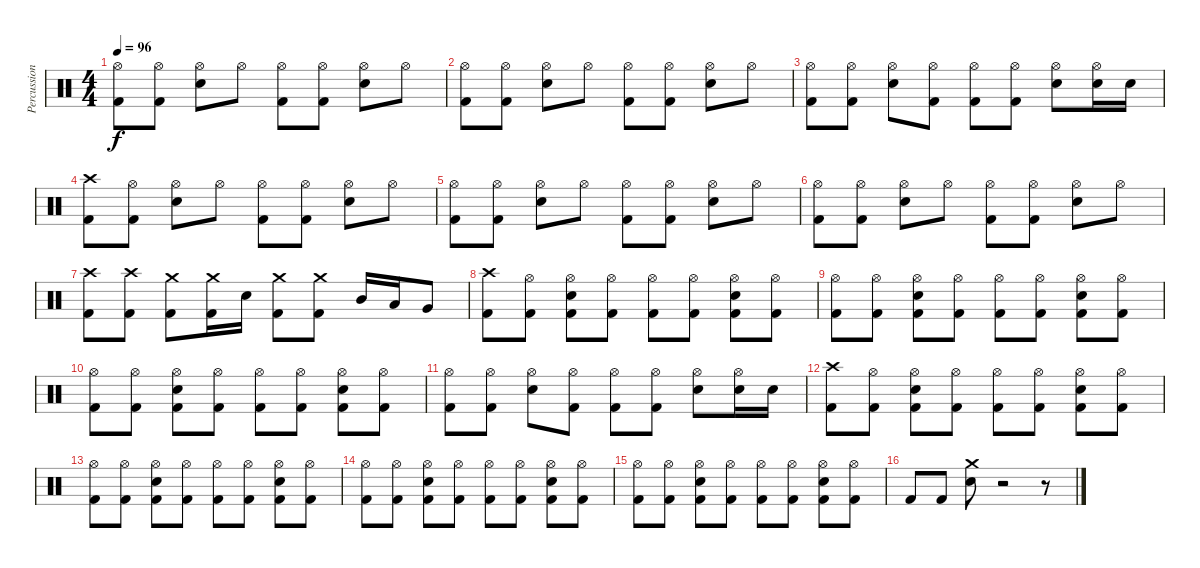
\track ("Percussion" "Percussion") {instrument percussion}
\staff {score}
\articulation defaults
\ts (4 4)
\tempo 96
\clef neutral
\ks c
("Hi-Hat (open)" "Kick (hit) 2").8{dy f} ("Hi-Hat (open)" "Kick (hit) 2").8 ("Hi-Hat (open)" "Electric Snare (hit)").8 "Hi-Hat (open)".8 ("Hi-Hat (open)" "Kick (hit) 2").8 ("Hi-Hat (open)" "Kick (hit) 2").8 ("Hi-Hat (open)" "Electric Snare (hit)").8 "Hi-Hat (open)".8 |
("Hi-Hat (open)" "Kick (hit) 2").8 ("Hi-Hat (open)" "Kick (hit) 2").8 ("Hi-Hat (open)" "Electric Snare (hit)").8 "Hi-Hat (open)".8 ("Hi-Hat (open)" "Kick (hit) 2").8 ("Hi-Hat (open)" "Kick (hit) 2").8 ("Hi-Hat (open)" "Electric Snare (hit)").8 "Hi-Hat (open)".8 |
("Hi-Hat (open)" "Kick (hit) 2").8 ("Hi-Hat (open)" "Kick (hit) 2").8 ("Hi-Hat (open)" "Electric Snare (hit)").8 ("Hi-Hat (open)" "Kick (hit) 2").8 ("Hi-Hat (open)" "Kick (hit) 2").8 ("Hi-Hat (open)" "Kick (hit) 2").8 ("Hi-Hat (open)" "Electric Snare (hit)").8 ("Hi-Hat (open)" "Electric Snare (hit)").16 "Electric Snare (hit)".16 |
("Crash high (hit)" "Kick (hit) 2").8 ("Hi-Hat (open)" "Kick (hit) 2").8 ("Hi-Hat (open)" "Electric Snare (hit)").8 "Hi-Hat (open)".8 ("Hi-Hat (open)" "Kick (hit) 2").8 ("Hi-Hat (open)" "Kick (hit) 2").8 ("Hi-Hat (open)" "Electric Snare (hit)").8 "Hi-Hat (open)".8 |
("Hi-Hat (open)" "Kick (hit) 2").8 ("Hi-Hat (open)" "Kick (hit) 2").8 ("Hi-Hat (open)" "Electric Snare (hit)").8 "Hi-Hat (open)".8 ("Hi-Hat (open)" "Kick (hit) 2").8 ("Hi-Hat (open)" "Kick (hit) 2").8 ("Hi-Hat (open)" "Electric Snare (hit)").8 "Hi-Hat (open)".8 |
("Hi-Hat (open)" "Kick (hit) 2").8 ("Hi-Hat (open)" "Kick (hit) 2").8 ("Hi-Hat (open)" "Electric Snare (hit)").8 "Hi-Hat (open)".8 ("Hi-Hat (open)" "Kick (hit) 2").8 ("Hi-Hat (open)" "Kick (hit) 2").8 ("Hi-Hat (open)" "Electric Snare (hit)").8 "Hi-Hat (open)".8 |
("Crash high (hit)" "Kick (hit) 2").8 ("Crash high (hit)" "Kick (hit) 2").8 ("Crash medium (hit)" "Kick (hit) 2").8 ("Crash medium (hit)" "Kick (hit) 2").16 "Electric Snare (hit)".16 ("Crash medium (hit)" "Kick (hit) 2").8 ("Crash medium (hit)" "Kick (hit) 2").8 "Mid Tom (hit)".16 "Low Tom (hit)".16 "Very Low Tom (hit)".8 |
("Crash high (hit)" "Kick (hit) 2").8 ("Hi-Hat (open)" "Kick (hit) 2").8 ("Hi-Hat (open)" "Electric Snare (hit)" "Kick (hit) 2").8 ("Hi-Hat (open)" "Kick (hit) 2").8 ("Hi-Hat (open)" "Kick (hit) 2").8 ("Hi-Hat (open)" "Kick (hit) 2").8 ("Hi-Hat (open)" "Electric Snare (hit)" "Kick (hit) 2").8 ("Hi-Hat (open)" "Kick (hit) 2").8 |
("Hi-Hat (open)" "Kick (hit) 2").8 ("Hi-Hat (open)" "Kick (hit) 2").8 ("Hi-Hat (open)" "Electric Snare (hit)" "Kick (hit) 2").8 ("Hi-Hat (open)" "Kick (hit) 2").8 ("Hi-Hat (open)" "Kick (hit) 2").8 ("Hi-Hat (open)" "Kick (hit) 2").8 ("Hi-Hat (open)" "Electric Snare (hit)" "Kick (hit) 2").8 ("Hi-Hat (open)" "Kick (hit) 2").8 |
("Hi-Hat (open)" "Kick (hit) 2").8 ("Hi-Hat (open)" "Kick (hit) 2").8 ("Hi-Hat (open)" "Electric Snare (hit)" "Kick (hit) 2").8 ("Hi-Hat (open)" "Kick (hit) 2").8 ("Hi-Hat (open)" "Kick (hit) 2").8 ("Hi-Hat (open)" "Kick (hit) 2").8 ("Hi-Hat (open)" "Electric Snare (hit)" "Kick (hit) 2").8 ("Hi-Hat (open)" "Kick (hit) 2").8 |
("Hi-Hat (open)" "Kick (hit) 2").8 ("Hi-Hat (open)" "Kick (hit) 2").8 ("Hi-Hat (open)" "Electric Snare (hit)").8 ("Hi-Hat (open)" "Kick (hit) 2").8 ("Hi-Hat (open)" "Kick (hit) 2").8 ("Hi-Hat (open)" "Kick (hit) 2").8 ("Hi-Hat (open)" "Electric Snare (hit)").8 ("Hi-Hat (open)" "Electric Snare (hit)").16 "Electric Snare (hit)".16 |
("Crash high (hit)" "Kick (hit) 2").8 ("Hi-Hat (open)" "Kick (hit) 2").8 ("Hi-Hat (open)" "Electric Snare (hit)" "Kick (hit) 2").8 ("Hi-Hat (open)" "Kick (hit) 2").8 ("Hi-Hat (open)" "Kick (hit) 2").8 ("Hi-Hat (open)" "Kick (hit) 2").8 ("Hi-Hat (open)" "Electric Snare (hit)" "Kick (hit) 2").8 ("Hi-Hat (open)" "Kick (hit) 2").8 |
("Hi-Hat (open)" "Kick (hit) 2").8 ("Hi-Hat (open)" "Kick (hit) 2").8 ("Hi-Hat (open)" "Electric Snare (hit)" "Kick (hit) 2").8 ("Hi-Hat (open)" "Kick (hit) 2").8 ("Hi-Hat (open)" "Kick (hit) 2").8 ("Hi-Hat (open)" "Kick (hit) 2").8 ("Hi-Hat (open)" "Electric Snare (hit)" "Kick (hit) 2").8 ("Hi-Hat (open)" "Kick (hit) 2").8 |
("Hi-Hat (open)" "Kick (hit) 2").8 ("Hi-Hat (open)" "Kick (hit) 2").8 ("Hi-Hat (open)" "Electric Snare (hit)" "Kick (hit) 2").8 ("Hi-Hat (open)" "Kick (hit) 2").8 ("Hi-Hat (open)" "Kick (hit) 2").8 ("Hi-Hat (open)" "Kick (hit) 2").8 ("Hi-Hat (open)" "Electric Snare (hit)" "Kick (hit) 2").8 ("Hi-Hat (open)" "Kick (hit) 2").8 |
("Hi-Hat (open)" "Kick (hit) 2").8 ("Hi-Hat (open)" "Kick (hit) 2").8 ("Hi-Hat (open)" "Electric Snare (hit)" "Kick (hit) 2").8 ("Hi-Hat (open)" "Kick (hit) 2").8 ("Hi-Hat (open)" "Kick (hit) 2").8 ("Hi-Hat (open)" "Kick (hit) 2").8 ("Hi-Hat (open)" "Electric Snare (hit)" "Kick (hit) 2").8 ("Hi-Hat (open)" "Kick (hit) 2").8 |
"Kick (hit) 2".8 "Kick (hit) 2".8 ("Crash medium (hit)" "Electric Snare (hit)").8 r.2 r.8
